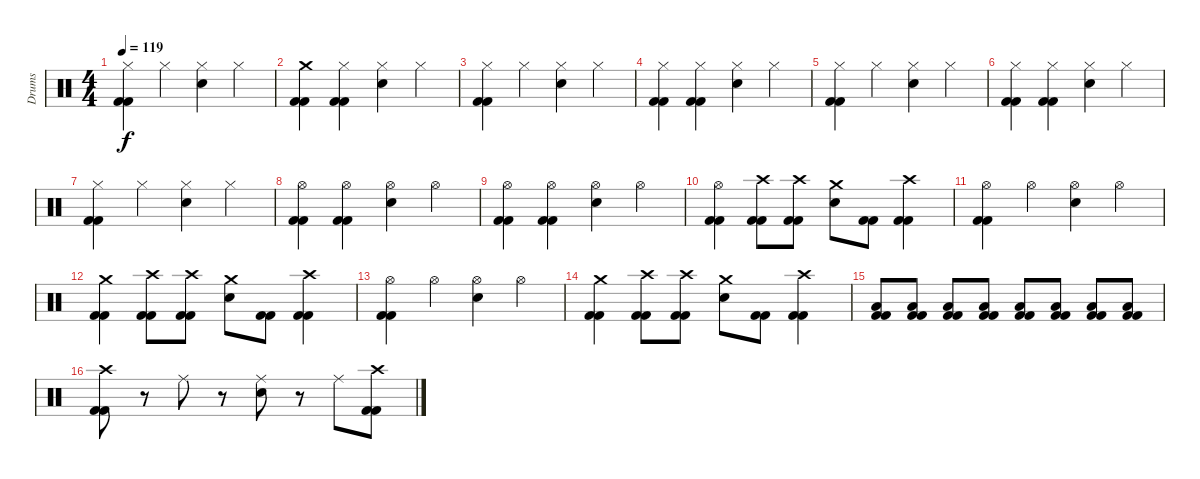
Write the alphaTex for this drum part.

\track ("Drums" "Drums") {instrument percussion}
\staff {score}
\articulation defaults
\ts (4 4)
\tempo 119
\clef neutral
\ks c
("Hi-Hat (closed)" "Kick (hit) 2" "Kick (hit) 2").4{dy f} "Hi-Hat (closed)".4 ("Hi-Hat (closed)" "Electric Snare (hit)").4 "Hi-Hat (closed)".4 |
("Crash medium (hit)" "Kick (hit) 2" "Kick (hit) 2").4 ("Hi-Hat (closed)" "Kick (hit) 2" "Kick (hit) 2").4 ("Hi-Hat (closed)" "Electric Snare (hit)").4 "Hi-Hat (closed)".4 |
("Hi-Hat (closed)" "Kick (hit) 2" "Kick (hit) 2").4 "Hi-Hat (closed)".4 ("Hi-Hat (closed)" "Electric Snare (hit)").4 "Hi-Hat (closed)".4 |
("Hi-Hat (closed)" "Kick (hit) 2" "Kick (hit) 2").4 ("Hi-Hat (closed)" "Kick (hit) 2" "Kick (hit) 2").4 ("Hi-Hat (closed)" "Electric Snare (hit)").4 "Hi-Hat (closed)".4 |
("Hi-Hat (closed)" "Kick (hit) 2" "Kick (hit) 2").4 "Hi-Hat (closed)".4 ("Hi-Hat (closed)" "Electric Snare (hit)").4 "Hi-Hat (closed)".4 |
("Hi-Hat (closed)" "Kick (hit) 2" "Kick (hit) 2").4 ("Hi-Hat (closed)" "Kick (hit) 2" "Kick (hit) 2").4 ("Hi-Hat (closed)" "Electric Snare (hit)").4 "Hi-Hat (closed)".4 |
("Hi-Hat (closed)" "Kick (hit) 2" "Kick (hit) 2").4 "Hi-Hat (closed)".4 ("Hi-Hat (closed)" "Electric Snare (hit)").4 "Hi-Hat (closed)".4 |
("Hi-Hat (open)" "Kick (hit) 2" "Kick (hit) 2").4 ("Hi-Hat (open)" "Kick (hit) 2" "Kick (hit) 2").4 ("Hi-Hat (open)" "Electric Snare (hit)").4 "Hi-Hat (open)".4 |
("Hi-Hat (open)" "Kick (hit) 2" "Kick (hit) 2").4 ("Hi-Hat (open)" "Kick (hit) 2" "Kick (hit) 2").4 ("Hi-Hat (open)" "Electric Snare (hit)").4 "Hi-Hat (open)".4 |
("Hi-Hat (open)" "Kick (hit) 2" "Kick (hit) 2").4 ("Crash high (hit)" "Kick (hit) 2" "Kick (hit) 2").8 ("Crash high (hit)" "Kick (hit) 2" "Kick (hit) 2").8 ("Crash medium (hit)" "Electric Snare (hit)").8 ("Kick (hit) 2" "Kick (hit) 2").8 ("Crash high (hit)" "Kick (hit) 2" "Kick (hit) 2").4 |
("Hi-Hat (open)" "Kick (hit) 2" "Kick (hit) 2").4 "Hi-Hat (open)".4 ("Hi-Hat (open)" "Electric Snare (hit)").4 "Hi-Hat (open)".4 |
("Crash medium (hit)" "Kick (hit) 2" "Kick (hit) 2").4 ("Crash high (hit)" "Kick (hit) 2" "Kick (hit) 2").8 ("Crash high (hit)" "Kick (hit) 2" "Kick (hit) 2").8 ("Crash medium (hit)" "Electric Snare (hit)").8 ("Kick (hit) 2" "Kick (hit) 2").8 ("Crash high (hit)" "Kick (hit) 2" "Kick (hit) 2").4 |
("Hi-Hat (open)" "Kick (hit) 2" "Kick (hit) 2").4 "Hi-Hat (open)".4 ("Hi-Hat (open)" "Electric Snare (hit)").4 "Hi-Hat (open)".4 |
("Crash medium (hit)" "Kick (hit) 2" "Kick (hit) 2").4 ("Crash high (hit)" "Kick (hit) 2" "Kick (hit) 2").8 ("Crash high (hit)" "Kick (hit) 2" "Kick (hit) 2").8 ("Crash medium (hit)" "Electric Snare (hit)").8 ("Kick (hit) 2" "Kick (hit) 2").8 ("Crash high (hit)" "Kick (hit) 2" "Kick (hit) 2").4 |
("Low Floor Tom (hit)" "Kick (hit) 2" "Kick (hit) 2").8 ("Low Floor Tom (hit)" "Kick (hit) 2" "Kick (hit) 2").8 ("Low Floor Tom (hit)" "Kick (hit) 2" "Kick (hit) 2").8 ("Low Floor Tom (hit)" "Kick (hit) 2" "Kick (hit) 2").8 ("Low Floor Tom (hit)" "Kick (hit) 2" "Kick (hit) 2").8 ("Low Floor Tom (hit)" "Kick (hit) 2" "Kick (hit) 2").8 ("Low Floor Tom (hit)" "Kick (hit) 2" "Kick (hit) 2").8 ("Low Floor Tom (hit)" "Kick (hit) 2" "Kick (hit) 2").8 |
("Crash high (hit)" "Kick (hit) 2" "Kick (hit) 2").8 r.8 "Ride (middle)".8 r.8 ("Ride (middle)" "Electric Snare (hit)").8 r.8 "Ride (middle)".8 ("Crash high (hit)" "Kick (hit) 2" "Kick (hit) 2").8
